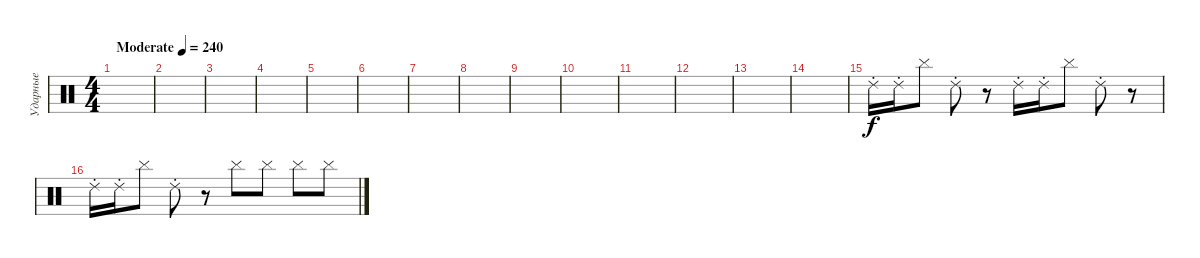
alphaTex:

\track ("Ударные" "Ударные") {instrument percussion}
\staff {score}
\articulation defaults
\ts (4 4)
\tempo (240 "Moderate")
\clef neutral
\ks c
|
|
|
|
|
|
|
|
|
|
|
|
|
|
"Ride (choke) 2".16 "Ride (choke) 2".16 "Cymbal (hit)".8 "Ride (choke) 2".8 r.8 "Ride (choke) 2".16 "Ride (choke) 2".16 "Cymbal (hit)".8 "Ride (choke) 2".8 r.8 |
"Ride (choke) 2".16 "Ride (choke) 2".16 "Cymbal (hit)".8 "Ride (choke) 2".8 r.8 "Cymbal (hit)".8 "Cymbal (hit)".8 "Cymbal (hit)".8 "Cymbal (hit)".8
